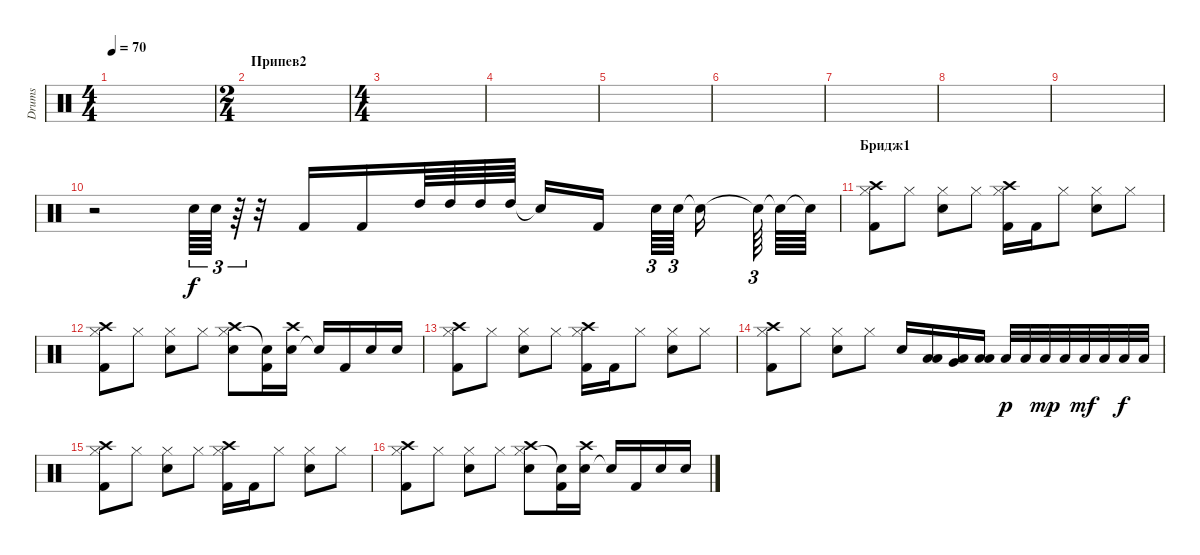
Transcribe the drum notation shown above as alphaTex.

\track ("Drums" "Drums") {instrument percussion}
\staff {score}
\articulation defaults
\ts (4 4)
\tempo 70
\clef neutral
\ks c
|
\ts (2 4)
\section ("" "Припев2")
|
\ts (4 4)
|
|
|
|
|
|
|
r.2 "Electric Snare (hit)".64{tu (3 2)} "Electric Snare (hit)".64{tu (3 2)} r.64{tu (3 2)} r.32 "Kick (hit) 2".16 "Kick (hit) 2".16 "High Tom (hit)".64 "High Tom (hit)".64 "High Tom (hit)".64 "High Tom (hit)".64 "Snare (hit)"{t}.16 "Kick (hit) 2".16 "Electric Snare (hit)".64{tu (3 2)} "Electric Snare (hit)".64{tu (3 2)} "Snare (hit)"{t}.16 "Snare (hit)"{t}.64{tu (3 2)} "Snare (hit)"{t}.64 "Snare (hit)"{t}.64 |
\section ("" "Бридж1")
("Kick (hit) 2" "Hi-Hat (closed)" "Crash high (hit)").8 "Hi-Hat (closed)".8 ("Electric Snare (hit)" "Hi-Hat (closed)").8 "Hi-Hat (closed)".8 ("Kick (hit) 2" "Hi-Hat (closed)" "Crash high (hit)").16 "Kick (hit) 2".16 "Hi-Hat (closed)".8 ("Electric Snare (hit)" "Hi-Hat (closed)").8 "Hi-Hat (closed)".8 |
("Kick (hit) 2" "Hi-Hat (closed)" "Crash high (hit)").8 "Hi-Hat (closed)".8 ("Electric Snare (hit)" "Hi-Hat (closed)").8 "Hi-Hat (closed)".8 ("Electric Snare (hit)" "Hi-Hat (closed)" "Crash high (hit)").8 ("Kick (hit) 2" "Snare (hit)"{t}).16 ("Electric Snare (hit)" "Crash high (hit)").16 "Snare (hit)"{t}.16 "Kick (hit) 2".16 "Electric Snare (hit)".16 "Electric Snare (hit)".16 |
("Kick (hit) 2" "Hi-Hat (closed)" "Crash high (hit)").8 "Hi-Hat (closed)".8 ("Electric Snare (hit)" "Hi-Hat (closed)").8 "Hi-Hat (closed)".8 ("Kick (hit) 2" "Hi-Hat (closed)" "Crash high (hit)").16 "Kick (hit) 2".16 "Hi-Hat (closed)".8 ("Electric Snare (hit)" "Hi-Hat (closed)").8 "Hi-Hat (closed)".8 |
("Kick (hit) 2" "Hi-Hat (closed)" "Crash high (hit)").8 "Hi-Hat (closed)".8 ("Electric Snare (hit)" "Hi-Hat (closed)").8 "Hi-Hat (closed)".8 "Electric Snare (hit)".16 ("Low Tom (hit)" "Low Floor Tom (hit)").16 ("Very Low Tom (hit)" "Low Floor Tom (hit)").16 ("Low Floor Tom (hit)" "Low Floor Tom (hit)").16 "Low Tom (hit)".32{dy p} "Low Tom (hit)".32 "Low Tom (hit)".32{dy mp} "Low Tom (hit)".32 "Low Tom (hit)".32{dy mf} "Low Tom (hit)".32 "Low Tom (hit)".32{dy f} "Low Tom (hit)".32 |
("Kick (hit) 2" "Hi-Hat (closed)" "Crash high (hit)").8 "Hi-Hat (closed)".8 ("Electric Snare (hit)" "Hi-Hat (closed)").8 "Hi-Hat (closed)".8 ("Kick (hit) 2" "Hi-Hat (closed)" "Crash high (hit)").16 "Kick (hit) 2".16 "Hi-Hat (closed)".8 ("Electric Snare (hit)" "Hi-Hat (closed)").8 "Hi-Hat (closed)".8 |
("Kick (hit) 2" "Hi-Hat (closed)" "Crash high (hit)").8 "Hi-Hat (closed)".8 ("Electric Snare (hit)" "Hi-Hat (closed)").8 "Hi-Hat (closed)".8 ("Electric Snare (hit)" "Hi-Hat (closed)" "Crash high (hit)").8 ("Kick (hit) 2" "Snare (hit)"{t}).16 ("Electric Snare (hit)" "Crash high (hit)").16 "Snare (hit)"{t}.16 "Kick (hit) 2".16 "Electric Snare (hit)".16 "Electric Snare (hit)".16
